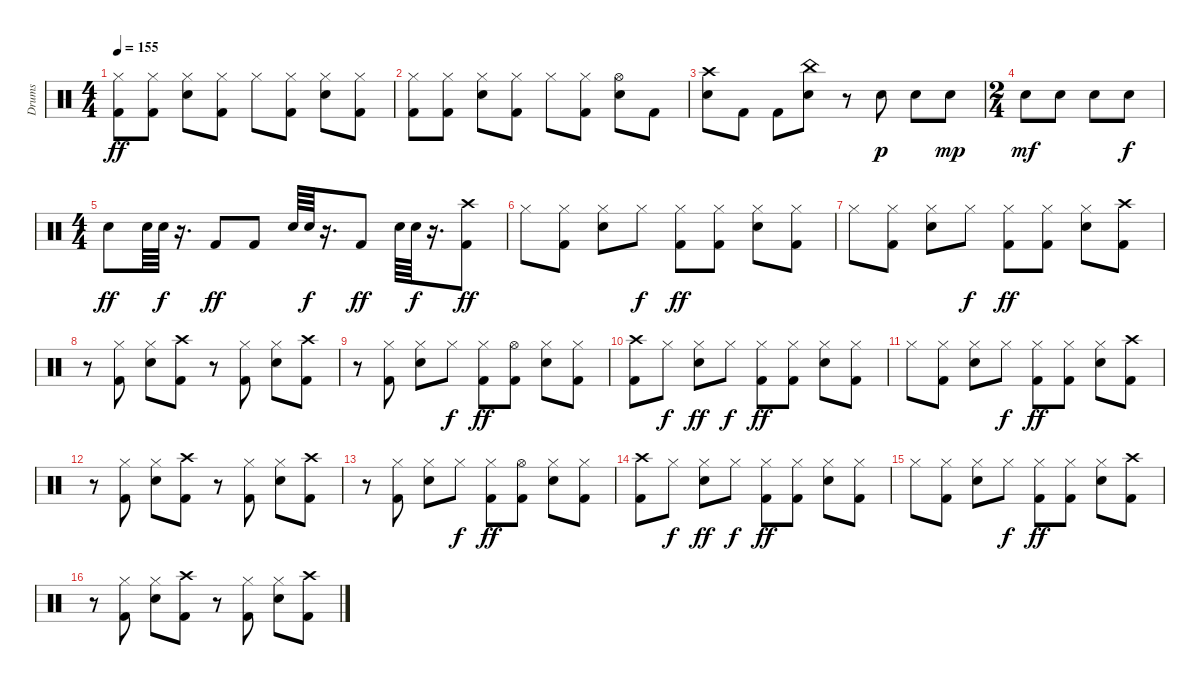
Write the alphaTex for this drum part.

\track ("Drums" "Drums") {instrument percussion}
\staff {score}
\articulation defaults
\ts (4 4)
\tempo 155
\clef neutral
\ks c
("Hi-Hat (closed)" "Kick (hit) 2").8{dy ff} ("Hi-Hat (closed)" "Kick (hit) 2").8 ("Hi-Hat (closed)" "Snare (hit) 2").8 ("Hi-Hat (closed)" "Kick (hit) 2").8 "Hi-Hat (closed)".8 ("Hi-Hat (closed)" "Kick (hit) 2").8 ("Hi-Hat (closed)" "Snare (hit) 2").8 ("Hi-Hat (closed)" "Kick (hit) 2").8 |
("Hi-Hat (closed)" "Kick (hit) 2").8 ("Hi-Hat (closed)" "Kick (hit) 2").8 ("Hi-Hat (closed)" "Snare (hit) 2").8 ("Hi-Hat (closed)" "Kick (hit) 2").8 "Hi-Hat (closed)".8 ("Hi-Hat (closed)" "Kick (hit) 2").8 ("Hi-Hat (open)" "Snare (hit) 2").8 "Kick (hit) 2".8 |
("Crash high (hit)" "Snare (hit) 2").8 "Kick (hit) 2".8 "Kick (hit) 2".8 ("China (hit)" "Snare (hit) 2").8 r.8 "Snare (hit) 2".8{dy p} "Snare (hit) 2".8 "Snare (hit) 2".8{dy mp} |
\ts (2 4)
"Snare (hit) 2".8{dy mf} "Snare (hit) 2".8 "Snare (hit) 2".8 "Snare (hit) 2".8{dy f} |
\ts (4 4)
"Snare (hit) 2".8{dy ff} "Snare (hit) 2".64 "Snare (hit) 2".64{dy f} r.16{d} "Kick (hit) 2".8{dy ff} "Kick (hit) 2".8 "Snare (hit) 2".64 "Snare (hit) 2".64{dy f} r.16{d} "Kick (hit) 2".8{dy ff} "Snare (hit) 2".64 "Snare (hit) 2".64{dy f} r.16{d} ("Crash high (hit)" "Kick (hit) 2").8{dy ff} |
"Hi-Hat (closed)".8 ("Hi-Hat (closed)" "Kick (hit) 2").8 ("Hi-Hat (closed)" "Snare (hit) 2").8 "Hi-Hat (closed)".8{dy f} ("Hi-Hat (closed)" "Kick (hit) 2").8{dy ff} ("Hi-Hat (closed)" "Kick (hit) 2").8 ("Hi-Hat (closed)" "Snare (hit) 2").8 ("Hi-Hat (closed)" "Kick (hit) 2").8 |
"Hi-Hat (closed)".8 ("Hi-Hat (closed)" "Kick (hit) 2").8 ("Hi-Hat (closed)" "Snare (hit) 2").8 "Hi-Hat (closed)".8{dy f} ("Hi-Hat (closed)" "Kick (hit) 2").8{dy ff} ("Hi-Hat (closed)" "Kick (hit) 2").8 ("Hi-Hat (closed)" "Snare (hit) 2").8 ("Crash high (hit)" "Kick (hit) 2").8 |
r.8 ("Hi-Hat (closed)" "Kick (hit) 2").8 ("Hi-Hat (closed)" "Snare (hit) 2").8 ("Crash high (hit)" "Kick (hit) 2").8 r.8 ("Hi-Hat (closed)" "Kick (hit) 2").8 ("Hi-Hat (closed)" "Snare (hit) 2").8 ("Crash high (hit)" "Kick (hit) 2").8 |
r.8 ("Hi-Hat (closed)" "Kick (hit) 2").8 ("Hi-Hat (closed)" "Snare (hit) 2").8 "Hi-Hat (closed)".8{dy f} ("Hi-Hat (closed)" "Kick (hit) 2").8{dy ff} ("Hi-Hat (open)" "Kick (hit) 2").8 ("Hi-Hat (closed)" "Snare (hit) 2").8 ("Hi-Hat (closed)" "Kick (hit) 2").8 |
("Crash high (hit)" "Kick (hit) 2").8 "Hi-Hat (closed)".8{dy f} ("Hi-Hat (closed)" "Snare (hit) 2").8{dy ff} "Hi-Hat (closed)".8{dy f} ("Hi-Hat (closed)" "Kick (hit) 2").8{dy ff} ("Hi-Hat (closed)" "Kick (hit) 2").8 ("Hi-Hat (closed)" "Snare (hit) 2").8 ("Hi-Hat (closed)" "Kick (hit) 2").8 |
"Hi-Hat (closed)".8 ("Hi-Hat (closed)" "Kick (hit) 2").8 ("Hi-Hat (closed)" "Snare (hit) 2").8 "Hi-Hat (closed)".8{dy f} ("Hi-Hat (closed)" "Kick (hit) 2").8{dy ff} ("Hi-Hat (closed)" "Kick (hit) 2").8 ("Hi-Hat (closed)" "Snare (hit) 2").8 ("Crash high (hit)" "Kick (hit) 2").8 |
r.8 ("Hi-Hat (closed)" "Kick (hit) 2").8 ("Hi-Hat (closed)" "Snare (hit) 2").8 ("Crash high (hit)" "Kick (hit) 2").8 r.8 ("Hi-Hat (closed)" "Kick (hit) 2").8 ("Hi-Hat (closed)" "Snare (hit) 2").8 ("Crash high (hit)" "Kick (hit) 2").8 |
r.8 ("Hi-Hat (closed)" "Kick (hit) 2").8 ("Hi-Hat (closed)" "Snare (hit) 2").8 "Hi-Hat (closed)".8{dy f} ("Hi-Hat (closed)" "Kick (hit) 2").8{dy ff} ("Hi-Hat (open)" "Kick (hit) 2").8 ("Hi-Hat (closed)" "Snare (hit) 2").8 ("Hi-Hat (closed)" "Kick (hit) 2").8 |
("Crash high (hit)" "Kick (hit) 2").8 "Hi-Hat (closed)".8{dy f} ("Hi-Hat (closed)" "Snare (hit) 2").8{dy ff} "Hi-Hat (closed)".8{dy f} ("Hi-Hat (closed)" "Kick (hit) 2").8{dy ff} ("Hi-Hat (closed)" "Kick (hit) 2").8 ("Hi-Hat (closed)" "Snare (hit) 2").8 ("Hi-Hat (closed)" "Kick (hit) 2").8 |
"Hi-Hat (closed)".8 ("Hi-Hat (closed)" "Kick (hit) 2").8 ("Hi-Hat (closed)" "Snare (hit) 2").8 "Hi-Hat (closed)".8{dy f} ("Hi-Hat (closed)" "Kick (hit) 2").8{dy ff} ("Hi-Hat (closed)" "Kick (hit) 2").8 ("Hi-Hat (closed)" "Snare (hit) 2").8 ("Crash high (hit)" "Kick (hit) 2").8 |
r.8 ("Hi-Hat (closed)" "Kick (hit) 2").8 ("Hi-Hat (closed)" "Snare (hit) 2").8 ("Crash high (hit)" "Kick (hit) 2").8 r.8 ("Hi-Hat (closed)" "Kick (hit) 2").8 ("Hi-Hat (closed)" "Snare (hit) 2").8 ("Crash high (hit)" "Kick (hit) 2").8
